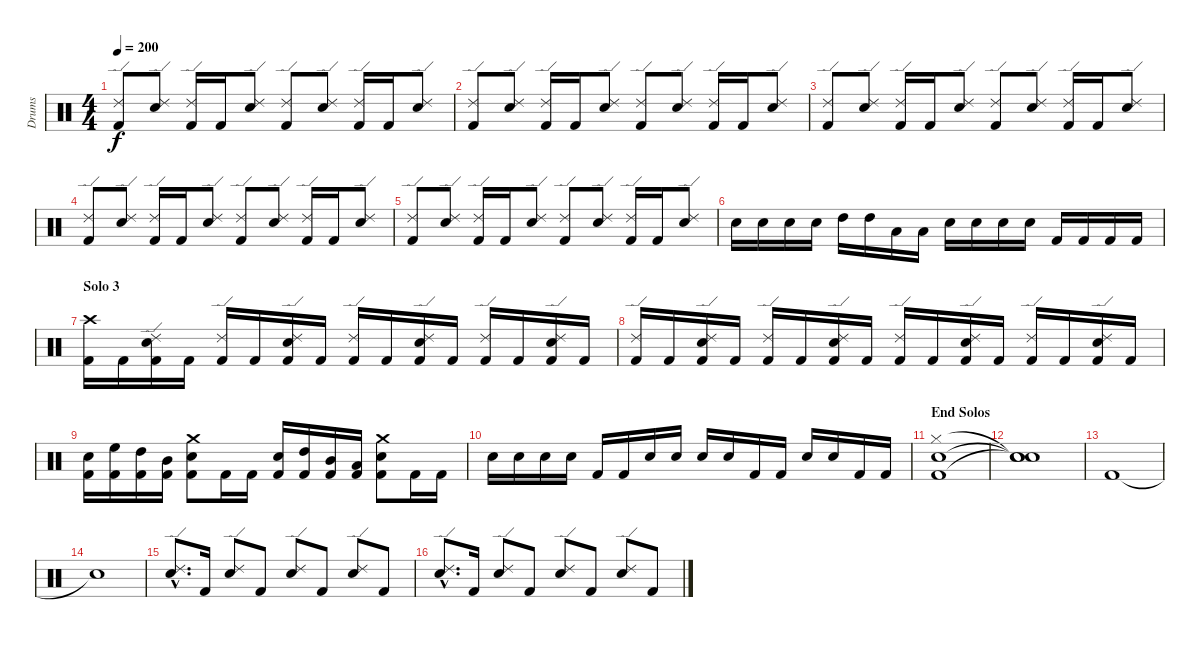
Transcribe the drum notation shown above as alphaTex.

\track ("Drums" "Drums") {instrument percussion}
\staff {score}
\articulation defaults
\ts (4 4)
\section ("" "")
\tempo 200
\clef neutral
\ks c
("Kick (hit) 2" "Ride (edge) 2").8{dy f} ("Snare (hit) 2" "Ride (edge) 2").8 ("Kick (hit) 2" "Ride (edge) 2").16 "Kick (hit) 2".16 ("Snare (hit) 2" "Ride (edge) 2").8 ("Kick (hit) 2" "Ride (edge) 2").8 ("Snare (hit) 2" "Ride (edge) 2").8 ("Kick (hit) 2" "Ride (edge) 2").16 "Kick (hit) 2".16 ("Snare (hit) 2" "Ride (edge) 2").8 |
("Kick (hit) 2" "Ride (edge) 2").8 ("Snare (hit) 2" "Ride (edge) 2").8 ("Kick (hit) 2" "Ride (edge) 2").16 "Kick (hit) 2".16 ("Snare (hit) 2" "Ride (edge) 2").8 ("Kick (hit) 2" "Ride (edge) 2").8 ("Snare (hit) 2" "Ride (edge) 2").8 ("Kick (hit) 2" "Ride (edge) 2").16 "Kick (hit) 2".16 ("Snare (hit) 2" "Ride (edge) 2").8 |
\section ("" "")
("Kick (hit) 2" "Ride (edge) 2").8 ("Snare (hit) 2" "Ride (edge) 2").8 ("Kick (hit) 2" "Ride (edge) 2").16 "Kick (hit) 2".16 ("Snare (hit) 2" "Ride (edge) 2").8 ("Kick (hit) 2" "Ride (edge) 2").8 ("Snare (hit) 2" "Ride (edge) 2").8 ("Kick (hit) 2" "Ride (edge) 2").16 "Kick (hit) 2".16 ("Snare (hit) 2" "Ride (edge) 2").8 |
("Kick (hit) 2" "Ride (edge) 2").8 ("Snare (hit) 2" "Ride (edge) 2").8 ("Kick (hit) 2" "Ride (edge) 2").16 "Kick (hit) 2".16 ("Snare (hit) 2" "Ride (edge) 2").8 ("Kick (hit) 2" "Ride (edge) 2").8 ("Snare (hit) 2" "Ride (edge) 2").8 ("Kick (hit) 2" "Ride (edge) 2").16 "Kick (hit) 2".16 ("Snare (hit) 2" "Ride (edge) 2").8 |
("Kick (hit) 2" "Ride (edge) 2").8 ("Snare (hit) 2" "Ride (edge) 2").8 ("Kick (hit) 2" "Ride (edge) 2").16 "Kick (hit) 2".16 ("Snare (hit) 2" "Ride (edge) 2").8 ("Kick (hit) 2" "Ride (edge) 2").8 ("Snare (hit) 2" "Ride (edge) 2").8 ("Kick (hit) 2" "Ride (edge) 2").16 "Kick (hit) 2".16 ("Snare (hit) 2" "Ride (edge) 2").8 |
"Snare (hit) 2".16 "Snare (hit) 2".16 "Snare (hit) 2".16 "Snare (hit) 2".16 "High Tom (hit)".16 "High Tom (hit)".16 "Low Tom (hit)".16 "Low Tom (hit)".16 "Snare (hit) 2".16 "Snare (hit) 2".16 "Snare (hit) 2".16 "Snare (hit) 2".16 "Kick (hit) 2".16 "Kick (hit) 2".16 "Kick (hit) 2".16 "Kick (hit) 2".16 |
\section ("" "Solo 3")
("Kick (hit) 2" "Crash high (hit)").16 "Kick (hit) 2".16 ("Kick (hit) 2" "Snare (hit) 2" "Ride (edge) 2").16 "Kick (hit) 2".16 ("Kick (hit) 2" "Ride (edge) 2").16 "Kick (hit) 2".16 ("Kick (hit) 2" "Snare (hit) 2" "Ride (edge) 2").16 "Kick (hit) 2".16 ("Kick (hit) 2" "Ride (edge) 2").16 "Kick (hit) 2".16 ("Kick (hit) 2" "Snare (hit) 2" "Ride (edge) 2").16 "Kick (hit) 2".16 ("Kick (hit) 2" "Ride (edge) 2").16 "Kick (hit) 2".16 ("Kick (hit) 2" "Snare (hit) 2" "Ride (edge) 2").16 "Kick (hit) 2".16 |
("Kick (hit) 2" "Ride (edge) 2").16 "Kick (hit) 2".16 ("Kick (hit) 2" "Snare (hit) 2" "Ride (edge) 2").16 "Kick (hit) 2".16 ("Kick (hit) 2" "Ride (edge) 2").16 "Kick (hit) 2".16 ("Kick (hit) 2" "Snare (hit) 2" "Ride (edge) 2").16 "Kick (hit) 2".16 ("Kick (hit) 2" "Ride (edge) 2").16 "Kick (hit) 2".16 ("Kick (hit) 2" "Snare (hit) 2" "Ride (edge) 2").16 "Kick (hit) 2".16 ("Kick (hit) 2" "Ride (edge) 2").16 "Kick (hit) 2".16 ("Kick (hit) 2" "Snare (hit) 2" "Ride (edge) 2").16 "Kick (hit) 2".16 |
("Kick (hit) 2" "Snare (hit) 2").16 ("Kick (hit) 2" "High Floor Tom (hit)").16 ("Kick (hit) 2" "High Tom (hit)").16 ("Kick (hit) 2" "Mid Tom (hit)").16 ("Kick (hit) 2" "Snare (hit) 2" "Crash medium (hit)").8 "Kick (hit) 2".16 "Kick (hit) 2".16 ("Kick (hit) 2" "Snare (hit) 2").16 ("Kick (hit) 2" "High Tom (hit)").16 ("Kick (hit) 2" "Mid Tom (hit)").16 ("Kick (hit) 2" "Low Tom (hit)").16 ("Kick (hit) 2" "Snare (hit) 2" "Crash medium (hit)").8 "Kick (hit) 2".16 "Kick (hit) 2".16 |
"Snare (hit) 2".16 "Snare (hit) 2".16 "Snare (hit) 2".16 "Snare (hit) 2".16 "Kick (hit) 2".16 "Kick (hit) 2".16 "Snare (hit) 2".16 "Snare (hit) 2".16 "Snare (hit) 2".16 "Snare (hit) 2".16 "Kick (hit) 2".16 "Kick (hit) 2".16 "Snare (hit) 2".16 "Snare (hit) 2".16 "Kick (hit) 2".16 "Kick (hit) 2".16 |
\section ("" "End Solos")
("Kick (hit) 2" "Snare (hit) 2" "Hi-Hat (closed)").1 |
("Snare (hit)"{t} "Snare (hit)"{t} "Snare (hit)"{t}).1 |
"Kick (hit) 2".1 |
"Snare (hit)"{t}.1 |
("Snare (hit) 2"{hac} "Ride (edge) 2"{hac}).8{d} "Kick (hit) 2".16 ("Snare (hit) 2" "Ride (edge) 2").8 "Kick (hit) 2".8 ("Snare (hit) 2" "Ride (edge) 2").8 "Kick (hit) 2".8 ("Snare (hit) 2" "Ride (edge) 2").8 "Kick (hit) 2".8 |
("Snare (hit) 2"{hac} "Ride (edge) 2"{hac}).8{d} "Kick (hit) 2".16 ("Snare (hit) 2" "Ride (edge) 2").8 "Kick (hit) 2".8 ("Snare (hit) 2" "Ride (edge) 2").8 "Kick (hit) 2".8 ("Snare (hit) 2" "Ride (edge) 2").8 "Kick (hit) 2".8
